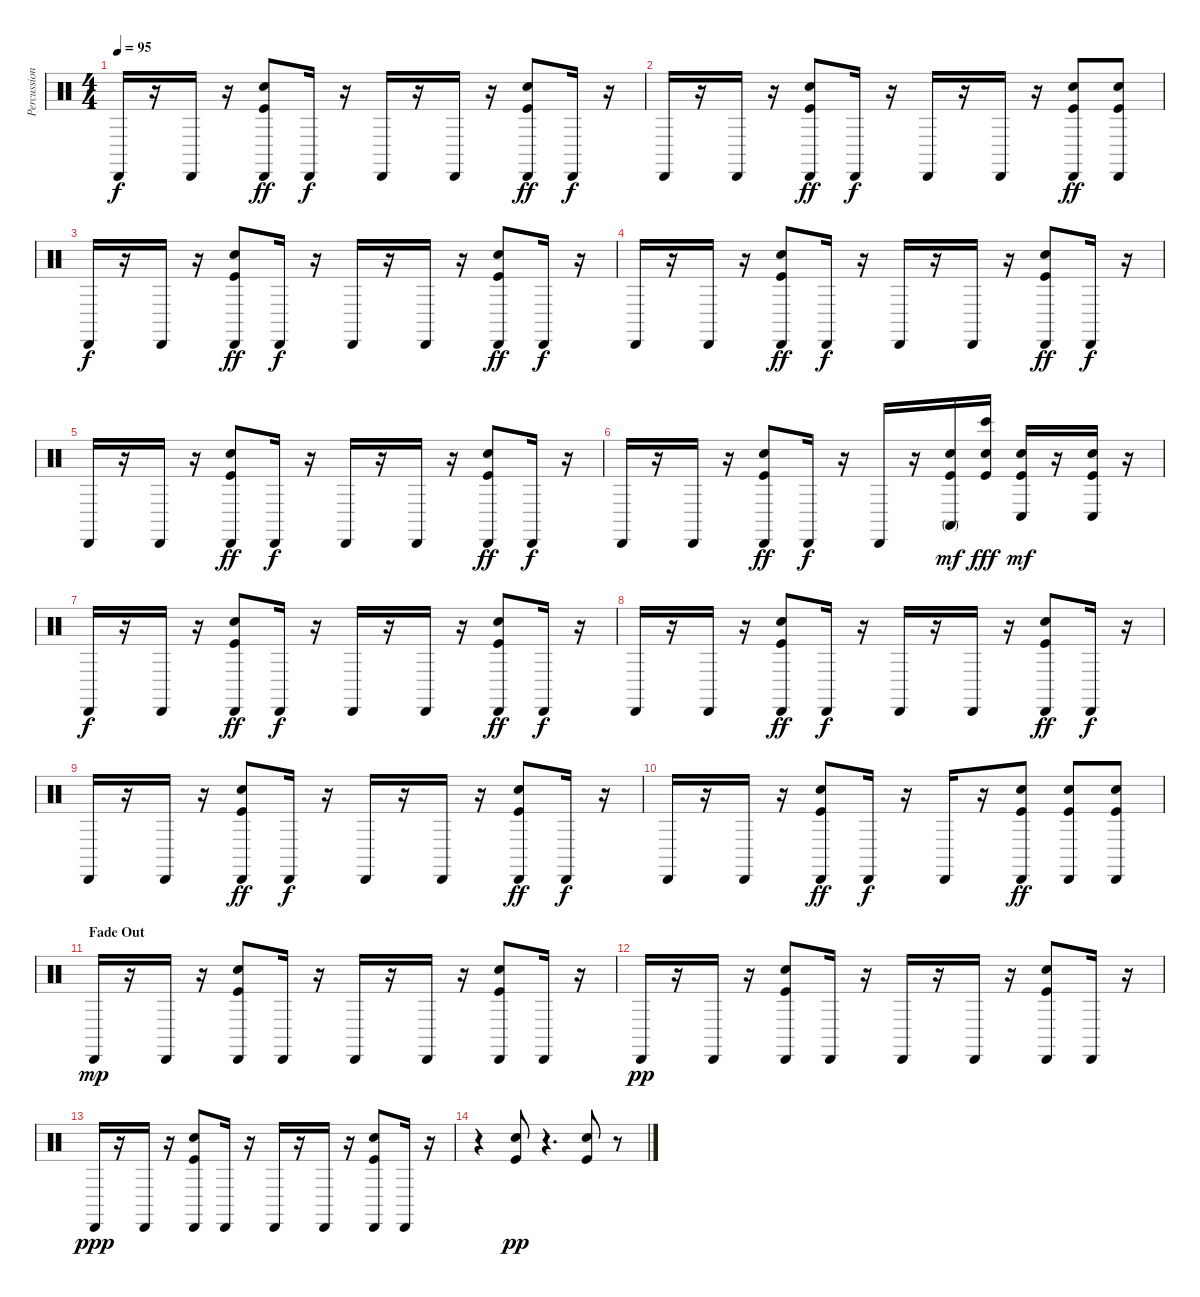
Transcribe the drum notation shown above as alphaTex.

\track ("Percussion" "Percussion") {instrument percussion}
\staff {score}
\articulation defaults
\ts (4 4)
\tempo 95
\clef neutral
\ks c "Cabasa (hit)".16{dy f}
r.16 "Cabasa (hit)".16 r.16 ("Snare (hit) 2" "Kick (hit)" "Cabasa (hit)").8{dy ff} "Cabasa (hit)".16{dy f} r.16 "Cabasa (hit)".16 r.16 "Cabasa (hit)".16 r.16 ("Snare (hit) 2" "Kick (hit)" "Cabasa (hit)").8{dy ff} "Cabasa (hit)".16{dy f} r.16 |
"Cabasa (hit)".16 r.16 "Cabasa (hit)".16 r.16 ("Snare (hit) 2" "Kick (hit)" "Cabasa (hit)").8{dy ff} "Cabasa (hit)".16{dy f} r.16 "Cabasa (hit)".16 r.16 "Cabasa (hit)".16 r.16 ("Cabasa (hit)" "Snare (hit) 2" "Kick (hit)").8{dy ff} ("Cabasa (hit)" "Snare (hit) 2" "Kick (hit)").8 |
"Cabasa (hit)".16{dy f} r.16 "Cabasa (hit)".16 r.16 ("Snare (hit) 2" "Kick (hit)" "Cabasa (hit)").8{dy ff} "Cabasa (hit)".16{dy f} r.16 "Cabasa (hit)".16 r.16 "Cabasa (hit)".16 r.16 ("Snare (hit) 2" "Kick (hit)" "Cabasa (hit)").8{dy ff} "Cabasa (hit)".16{dy f} r.16 |
"Cabasa (hit)".16 r.16 "Cabasa (hit)".16 r.16 ("Snare (hit) 2" "Kick (hit)" "Cabasa (hit)").8{dy ff} "Cabasa (hit)".16{dy f} r.16 "Cabasa (hit)".16 r.16 "Cabasa (hit)".16 r.16 ("Snare (hit) 2" "Kick (hit)" "Cabasa (hit)").8{dy ff} "Cabasa (hit)".16{dy f} r.16 |
"Cabasa (hit)".16 r.16 "Cabasa (hit)".16 r.16 ("Snare (hit) 2" "Kick (hit)" "Cabasa (hit)").8{dy ff} "Cabasa (hit)".16{dy f} r.16 "Cabasa (hit)".16 r.16 "Cabasa (hit)".16 r.16 ("Snare (hit) 2" "Kick (hit)" "Cabasa (hit)").8{dy ff} "Cabasa (hit)".16{dy f} r.16 |
"Cabasa (hit)".16 r.16 "Cabasa (hit)".16 r.16 ("Snare (hit) 2" "Kick (hit)" "Cabasa (hit)").8{dy ff} "Cabasa (hit)".16{dy f} r.16 "Cabasa (hit)".16 r.16 ("Conga high (mute)" "Snare (hit) 2" "Kick (hit)").16{dy mf} ("Kick (hit)" "Snare (hit) 2" "Bongo High (hit)").16{dy fff} ("Conga low (hit)" "Snare (hit) 2" "Kick (hit)").16{dy mf} r.16 ("Conga low (hit)" "Snare (hit) 2" "Kick (hit)").16 r.16 |
"Cabasa (hit)".16{dy f} r.16 "Cabasa (hit)".16 r.16 ("Snare (hit) 2" "Kick (hit)" "Cabasa (hit)").8{dy ff} "Cabasa (hit)".16{dy f} r.16 "Cabasa (hit)".16 r.16 "Cabasa (hit)".16 r.16 ("Snare (hit) 2" "Kick (hit)" "Cabasa (hit)").8{dy ff} "Cabasa (hit)".16{dy f} r.16 |
"Cabasa (hit)".16 r.16 "Cabasa (hit)".16 r.16 ("Snare (hit) 2" "Kick (hit)" "Cabasa (hit)").8{dy ff} "Cabasa (hit)".16{dy f} r.16 "Cabasa (hit)".16 r.16 "Cabasa (hit)".16 r.16 ("Snare (hit) 2" "Kick (hit)" "Cabasa (hit)").8{dy ff} "Cabasa (hit)".16{dy f} r.16 |
"Cabasa (hit)".16 r.16 "Cabasa (hit)".16 r.16 ("Snare (hit) 2" "Kick (hit)" "Cabasa (hit)").8{dy ff} "Cabasa (hit)".16{dy f} r.16 "Cabasa (hit)".16 r.16 "Cabasa (hit)".16 r.16 ("Snare (hit) 2" "Kick (hit)" "Cabasa (hit)").8{dy ff} "Cabasa (hit)".16{dy f} r.16 |
"Cabasa (hit)".16 r.16 "Cabasa (hit)".16 r.16 ("Snare (hit) 2" "Kick (hit)" "Cabasa (hit)").8{dy ff} "Cabasa (hit)".16{dy f} r.16 "Cabasa (hit)".16 r.16 ("Snare (hit) 2" "Cabasa (hit)" "Kick (hit)").8{dy ff} ("Snare (hit) 2" "Kick (hit)" "Cabasa (hit)").8 ("Cabasa (hit)" "Snare (hit) 2" "Kick (hit)").8 |
\section ("" "Fade Out")
"Cabasa (hit)".16{dy mp} r.16 "Cabasa (hit)".16 r.16 ("Snare (hit) 2" "Kick (hit)" "Cabasa (hit)").8 "Cabasa (hit)".16 r.16 "Cabasa (hit)".16 r.16 "Cabasa (hit)".16 r.16 ("Snare (hit) 2" "Kick (hit)" "Cabasa (hit)").8 "Cabasa (hit)".16 r.16 |
"Cabasa (hit)".16{dy pp} r.16 "Cabasa (hit)".16 r.16 ("Snare (hit) 2" "Kick (hit)" "Cabasa (hit)").8 "Cabasa (hit)".16 r.16 "Cabasa (hit)".16 r.16 "Cabasa (hit)".16 r.16 ("Snare (hit) 2" "Kick (hit)" "Cabasa (hit)").8 "Cabasa (hit)".16 r.16 |
"Cabasa (hit)".16{dy ppp} r.16 "Cabasa (hit)".16 r.16 ("Snare (hit) 2" "Kick (hit)" "Cabasa (hit)").8 "Cabasa (hit)".16 r.16 "Cabasa (hit)".16 r.16 "Cabasa (hit)".16 r.16 ("Snare (hit) 2" "Kick (hit)" "Cabasa (hit)").8 "Cabasa (hit)".16 r.16 |
r.4 ("Snare (hit) 2" "Kick (hit)").8{dy pp} r.4{d} ("Snare (hit) 2" "Kick (hit)").8 r.8
